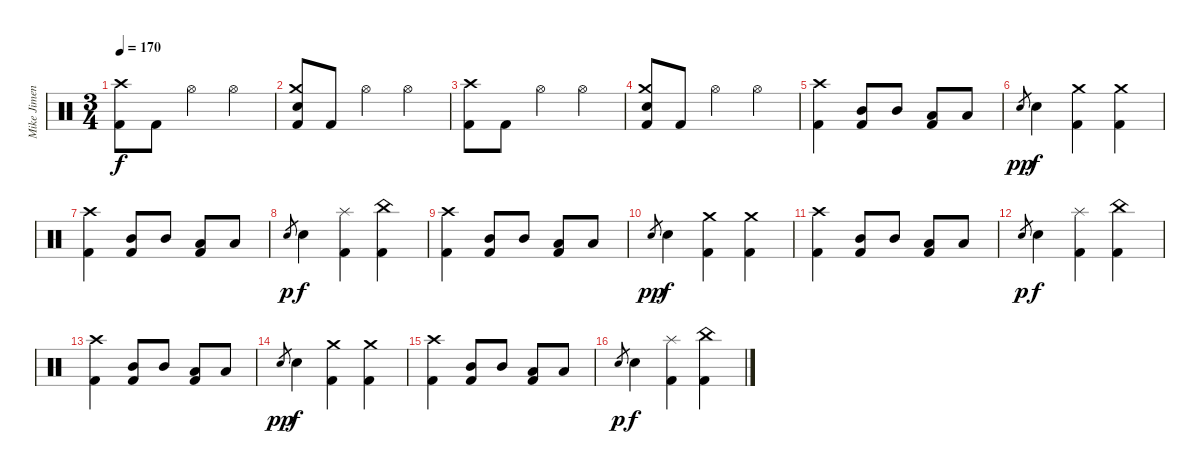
\track ("Mike Jimenez" "Mike Jimen") {instrument percussion}
\staff {score}
\articulation defaults
\ts (3 4)
\tempo 170
\clef neutral
\ks c
("Crash high (hit)" "Kick (hit) 2").8{dy f} "Kick (hit) 2".8 "Hi-Hat (open)".4 "Hi-Hat (open)".4 |
("Crash medium (hit)" "Electric Snare (hit)" "Kick (hit) 2").8 "Kick (hit) 2".8 "Hi-Hat (open)".4 "Hi-Hat (open)".4 |
("Crash high (hit)" "Kick (hit) 2").8 "Kick (hit) 2".8 "Hi-Hat (open)".4 "Hi-Hat (open)".4 |
("Crash medium (hit)" "Electric Snare (hit)" "Kick (hit) 2").8 "Kick (hit) 2".8 "Hi-Hat (open)".4 "Hi-Hat (open)".4 |
("Crash high (hit)" "Kick (hit) 2").4 ("Mid Tom (hit)" "Kick (hit) 2").8 "Mid Tom (hit)".8 ("Low Tom (hit)" "Kick (hit) 2").8 "Low Tom (hit)".8 |
"Electric Snare (hit)".8{gr dy pp} "Electric Snare (hit)".4{dy f} ("Crash medium (hit)" "Kick (hit) 2").4 ("Crash medium (hit)" "Kick (hit) 2").4 |
("Crash high (hit)" "Kick (hit) 2").4 ("Mid Tom (hit)" "Kick (hit) 2").8 "Mid Tom (hit)".8 ("Low Tom (hit)" "Kick (hit) 2").8 "Low Tom (hit)".8 |
"Electric Snare (hit)".8{gr dy p} "Electric Snare (hit)".4{dy f} ("Splash (hit)" "Kick (hit) 2").4 ("China (hit)" "Kick (hit) 2").4 |
("Crash high (hit)" "Kick (hit) 2").4 ("Mid Tom (hit)" "Kick (hit) 2").8 "Mid Tom (hit)".8 ("Low Tom (hit)" "Kick (hit) 2").8 "Low Tom (hit)".8 |
"Electric Snare (hit)".8{gr dy pp} "Electric Snare (hit)".4{dy f} ("Crash medium (hit)" "Kick (hit) 2").4 ("Crash medium (hit)" "Kick (hit) 2").4 |
("Crash high (hit)" "Kick (hit) 2").4 ("Mid Tom (hit)" "Kick (hit) 2").8 "Mid Tom (hit)".8 ("Low Tom (hit)" "Kick (hit) 2").8 "Low Tom (hit)".8 |
"Electric Snare (hit)".8{gr dy p} "Electric Snare (hit)".4{dy f} ("Splash (hit)" "Kick (hit) 2").4 ("China (hit)" "Kick (hit) 2").4 |
("Crash high (hit)" "Kick (hit) 2").4 ("Mid Tom (hit)" "Kick (hit) 2").8 "Mid Tom (hit)".8 ("Low Tom (hit)" "Kick (hit) 2").8 "Low Tom (hit)".8 |
"Electric Snare (hit)".8{gr dy pp} "Electric Snare (hit)".4{dy f} ("Crash medium (hit)" "Kick (hit) 2").4 ("Crash medium (hit)" "Kick (hit) 2").4 |
("Crash high (hit)" "Kick (hit) 2").4 ("Mid Tom (hit)" "Kick (hit) 2").8 "Mid Tom (hit)".8 ("Low Tom (hit)" "Kick (hit) 2").8 "Low Tom (hit)".8 |
"Electric Snare (hit)".8{gr dy p} "Electric Snare (hit)".4{dy f} ("Splash (hit)" "Kick (hit) 2").4 ("China (hit)" "Kick (hit) 2").4
